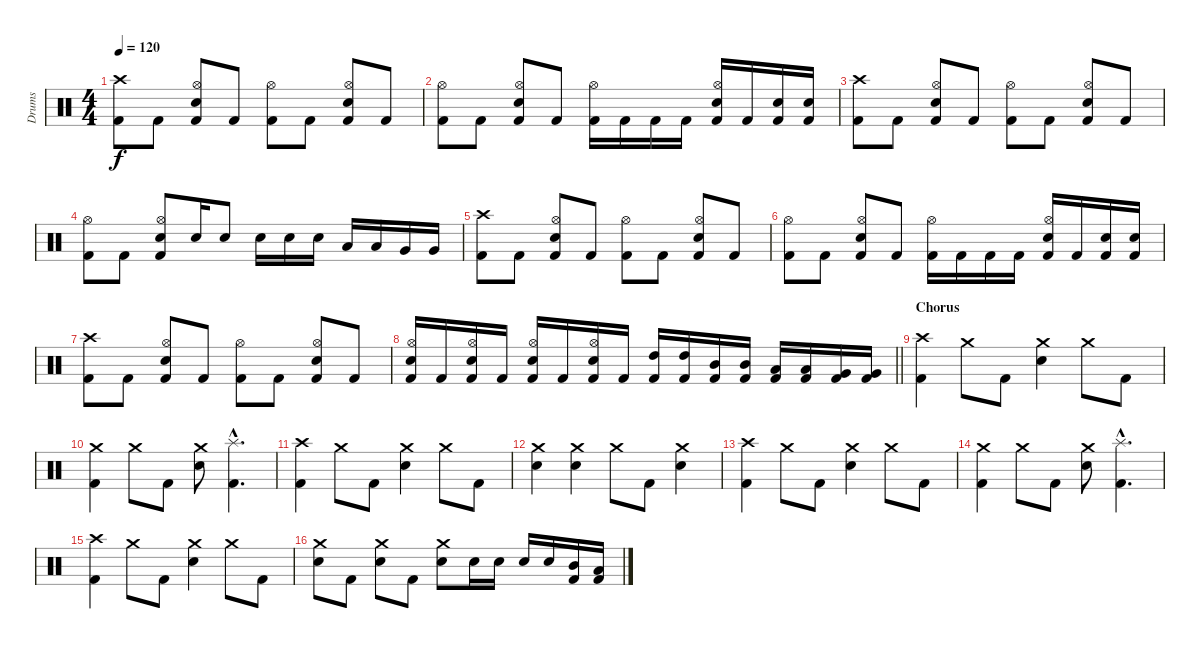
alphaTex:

\track ("Drums" "Drums") {instrument percussion}
\staff {score}
\articulation defaults
\ts (4 4)
\tempo 120
\clef neutral
\ks c
("Crash high (hit)" "Kick (hit) 2").8{dy f} "Kick (hit) 2".8 ("Hi-Hat (open)" "Electric Snare (hit)" "Kick (hit) 2").8 "Kick (hit) 2".8 ("Hi-Hat (open)" "Kick (hit) 2").8 "Kick (hit) 2".8 ("Hi-Hat (open)" "Electric Snare (hit)" "Kick (hit) 2").8 "Kick (hit) 2".8 |
("Hi-Hat (open)" "Kick (hit) 2").8 "Kick (hit) 2".8 ("Hi-Hat (open)" "Electric Snare (hit)" "Kick (hit) 2").8 "Kick (hit) 2".8 ("Hi-Hat (open)" "Kick (hit) 2").16 "Kick (hit) 2".16 "Kick (hit) 2".16 "Kick (hit) 2".16 ("Hi-Hat (open)" "Electric Snare (hit)" "Kick (hit) 2").16 "Kick (hit) 2".16 ("Electric Snare (hit)" "Kick (hit) 2").16 ("Electric Snare (hit)" "Kick (hit) 2").16 |
("Crash high (hit)" "Kick (hit) 2").8 "Kick (hit) 2".8 ("Hi-Hat (open)" "Electric Snare (hit)" "Kick (hit) 2").8 "Kick (hit) 2".8 ("Hi-Hat (open)" "Kick (hit) 2").8 "Kick (hit) 2".8 ("Hi-Hat (open)" "Electric Snare (hit)" "Kick (hit) 2").8 "Kick (hit) 2".8 |
("Hi-Hat (open)" "Kick (hit) 2").8 "Kick (hit) 2".8 ("Hi-Hat (open)" "Electric Snare (hit)" "Kick (hit) 2").8 "Electric Snare (hit)".16 "Electric Snare (hit)".8 "Electric Snare (hit)".16 "Electric Snare (hit)".16 "Electric Snare (hit)".16 "Low Tom (hit)".16 "Low Tom (hit)".16 "Very Low Tom (hit)".16 "Very Low Tom (hit)".16 |
("Crash high (hit)" "Kick (hit) 2").8 "Kick (hit) 2".8 ("Hi-Hat (open)" "Electric Snare (hit)" "Kick (hit) 2").8 "Kick (hit) 2".8 ("Hi-Hat (open)" "Kick (hit) 2").8 "Kick (hit) 2".8 ("Hi-Hat (open)" "Electric Snare (hit)" "Kick (hit) 2").8 "Kick (hit) 2".8 |
("Hi-Hat (open)" "Kick (hit) 2").8 "Kick (hit) 2".8 ("Hi-Hat (open)" "Electric Snare (hit)" "Kick (hit) 2").8 "Kick (hit) 2".8 ("Hi-Hat (open)" "Kick (hit) 2").16 "Kick (hit) 2".16 "Kick (hit) 2".16 "Kick (hit) 2".16 ("Hi-Hat (open)" "Electric Snare (hit)" "Kick (hit) 2").16 "Kick (hit) 2".16 ("Electric Snare (hit)" "Kick (hit) 2").16 ("Electric Snare (hit)" "Kick (hit) 2").16 |
("Crash high (hit)" "Kick (hit) 2").8 "Kick (hit) 2".8 ("Hi-Hat (open)" "Electric Snare (hit)" "Kick (hit) 2").8 "Kick (hit) 2".8 ("Hi-Hat (open)" "Kick (hit) 2").8 "Kick (hit) 2".8 ("Hi-Hat (open)" "Electric Snare (hit)" "Kick (hit) 2").8 "Kick (hit) 2".8 |
\barLineRight lightlight
("Hi-Hat (open)" "Electric Snare (hit)" "Kick (hit) 2").16 "Kick (hit) 2".16 ("Hi-Hat (open)" "Electric Snare (hit)" "Kick (hit) 2").16 "Kick (hit) 2".16 ("Hi-Hat (open)" "Electric Snare (hit)" "Kick (hit) 2").16 "Kick (hit) 2".16 ("Hi-Hat (open)" "Electric Snare (hit)" "Kick (hit) 2").16 "Kick (hit) 2".16 ("High Tom (hit)" "Kick (hit) 2").16 ("High Tom (hit)" "Kick (hit) 2").16 ("Mid Tom (hit)" "Kick (hit) 2").16 ("Mid Tom (hit)" "Kick (hit) 2").16 ("Low Tom (hit)" "Kick (hit) 2").16 ("Low Tom (hit)" "Kick (hit) 2").16 ("Very Low Tom (hit)" "Kick (hit) 2").16 ("Very Low Tom (hit)" "Kick (hit) 2").16 |
\section ("" "Chorus")
("Crash high (hit)" "Kick (hit) 2").4 "Crash medium (hit)".8 "Kick (hit) 2".8 ("Crash medium (hit)" "Electric Snare (hit)").4 "Crash medium (hit)".8 "Kick (hit) 2".8 |
("Crash medium (hit)" "Kick (hit) 2").4 "Crash medium (hit)".8 "Kick (hit) 2".8 ("Crash medium (hit)" "Electric Snare (hit)").8 ("Splash (hit)"{hac} "Kick (hit) 2"{hac}).4{d} |
("Crash high (hit)" "Kick (hit) 2").4 "Crash medium (hit)".8 "Kick (hit) 2".8 ("Crash medium (hit)" "Electric Snare (hit)").4 "Crash medium (hit)".8 "Kick (hit) 2".8 |
("Crash medium (hit)" "Electric Snare (hit)").4 ("Crash medium (hit)" "Electric Snare (hit)").4 "Crash medium (hit)".8 "Kick (hit) 2".8 ("Crash medium (hit)" "Electric Snare (hit)").4 |
("Crash high (hit)" "Kick (hit) 2").4 "Crash medium (hit)".8 "Kick (hit) 2".8 ("Crash medium (hit)" "Electric Snare (hit)").4 "Crash medium (hit)".8 "Kick (hit) 2".8 |
("Crash medium (hit)" "Kick (hit) 2").4 "Crash medium (hit)".8 "Kick (hit) 2".8 ("Crash medium (hit)" "Electric Snare (hit)").8 ("Splash (hit)"{hac} "Kick (hit) 2"{hac}).4{d} |
("Crash high (hit)" "Kick (hit) 2").4 "Crash medium (hit)".8 "Kick (hit) 2".8 ("Crash medium (hit)" "Electric Snare (hit)").4 "Crash medium (hit)".8 "Kick (hit) 2".8 |
("Crash medium (hit)" "Electric Snare (hit)").8 "Kick (hit) 2".8 ("Crash medium (hit)" "Electric Snare (hit)").8 "Kick (hit) 2".8 ("Crash medium (hit)" "Electric Snare (hit)").8 "Electric Snare (hit)".16 "Electric Snare (hit)".16 "Electric Snare (hit)".16 "Electric Snare (hit)".16 ("Mid Tom (hit)" "Kick (hit) 2").16 ("Low Tom (hit)" "Kick (hit) 2").16
